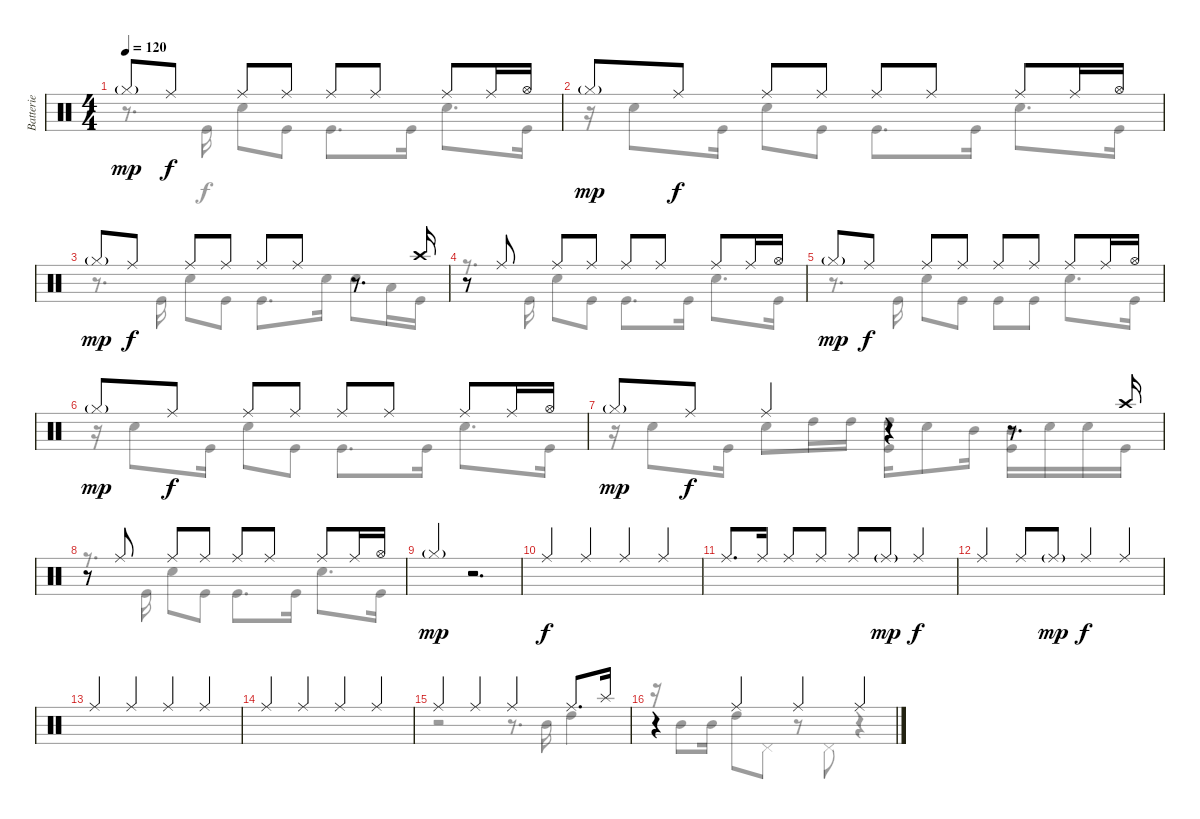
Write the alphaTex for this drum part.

\track ("Batterie" "Batterie") {instrument percussion}
\staff {score}
\articulation defaults
\voice
\ts (4 4)
\tempo 120
\clef neutral
\ks c "Hi-Hat (closed)"{g}.8{dy mp} "Ride (middle)".8{dy f} "Ride (middle)".8 "Ride (middle)".8 "Ride (middle)".8 "Ride (middle)".8 "Ride (middle)".8 "Ride (middle)".16 "Hi-Hat (open)".16
|
"Hi-Hat (closed)"{g}.8{dy mp} "Ride (middle)".8{dy f} "Ride (middle)".8 "Ride (middle)".8 "Ride (middle)".8 "Ride (middle)".8 "Ride (middle)".8 "Ride (middle)".16 "Hi-Hat (open)".16 |
"Hi-Hat (closed)"{g}.8{dy mp} "Ride (middle)".8{dy f} "Ride (middle)".8 "Ride (middle)".8 "Ride (middle)".8 "Ride (middle)".8 r.8{d} "Crash high (hit)".16 |
r.8 "Ride (middle)".8 "Ride (middle)".8 "Ride (middle)".8 "Ride (middle)".8 "Ride (middle)".8 "Ride (middle)".8 "Ride (middle)".16 "Hi-Hat (open)".16 |
"Hi-Hat (closed)"{g}.8{dy mp} "Ride (middle)".8{dy f} "Ride (middle)".8 "Ride (middle)".8 "Ride (middle)".8 "Ride (middle)".8 "Ride (middle)".8 "Ride (middle)".16 "Hi-Hat (open)".16 |
"Hi-Hat (closed)"{g}.8{dy mp} "Ride (middle)".8{dy f} "Ride (middle)".8 "Ride (middle)".8 "Ride (middle)".8 "Ride (middle)".8 "Ride (middle)".8 "Ride (middle)".16 "Hi-Hat (open)".16 |
"Hi-Hat (closed)"{g}.8{dy mp} "Ride (middle)".8{dy f} "Ride (middle)".4 r.4 r.8{d} "Crash high (hit)".16 |
r.8 "Ride (middle)".8 "Ride (middle)".8 "Ride (middle)".8 "Ride (middle)".8 "Ride (middle)".8 "Ride (middle)".8 "Ride (middle)".16 "Hi-Hat (open)".16 |
"Hi-Hat (closed)"{g}.4{dy mp beam Up} r.2{d} |
"Ride (middle)".4{dy f beam Up} "Ride (middle)".4{beam Up} "Ride (middle)".4{beam Up} "Ride (middle)".4{beam Up} |
"Ride (middle)".8{d beam Up} "Ride (middle)".16{beam Up} "Ride (middle)".8{beam Up} "Ride (middle)".8{beam Up} "Ride (middle)".8{beam Up} "Ride (middle)"{g}.8{dy mp beam Up} "Ride (middle)".4{dy f beam Up} |
"Ride (middle)".4{beam Up} "Ride (middle)".8{beam Up} "Ride (middle)"{g}.8{dy mp beam Up} "Ride (middle)".4{dy f beam Up} "Ride (middle)".4{beam Up} |
"Ride (middle)".4{beam Up} "Ride (middle)".4{beam Up} "Ride (middle)".4{beam Up} "Ride (middle)".4{beam Up} |
"Ride (middle)".4{beam Up} "Ride (middle)".4{beam Up} "Ride (middle)".4{beam Up} "Ride (middle)".4{beam Up} |
"Ride (middle)".4 "Ride (middle)".4 "Ride (middle)".4 "Ride (middle)".8{d} "Splash (hit)".16 |
r.4 "Ride (middle)".4 "Ride (middle)".4 "Ride (middle)".4
\voice
\clef neutral
\ottava regular
\simile none
\ks c
r.8{d dy f} "Kick (hit)".16 "Snare (hit) 2".8 "Kick (hit)".8 "Kick (hit)".8{d} "Kick (hit)".16 "Snare (hit) 2".8{d} "Kick (hit)".16 |
r.16 "Snare (hit) 2".8 "Kick (hit)".16 "Snare (hit) 2".8 "Kick (hit)".8 "Kick (hit)".8{d} "Kick (hit)".16 "Snare (hit) 2".8{d} "Kick (hit)".16 |
r.8{d} "Kick (hit)".16 "Snare (hit) 2".8 "Kick (hit)".8 "Kick (hit)".8{d} "Snare (hit) 2".16 "Snare (hit) 2".8 "Low Tom (hit)".16 "Kick (hit)".16 |
r.8{d} "Kick (hit)".16 "Snare (hit) 2".8 "Kick (hit)".8 "Kick (hit)".8{d} "Kick (hit)".16 "Snare (hit) 2".8{d} "Kick (hit)".16 |
r.8{d} "Kick (hit)".16 "Snare (hit) 2".8 "Kick (hit)".8 "Kick (hit)".8 "Kick (hit)".8 "Snare (hit) 2".8{d} "Kick (hit)".16 |
r.16 "Snare (hit) 2".8 "Kick (hit)".16 "Snare (hit) 2".8 "Kick (hit)".8 "Kick (hit)".8{d} "Kick (hit)".16 "Snare (hit) 2".8{d} "Kick (hit)".16 |
r.16 "Snare (hit) 2".8 "Kick (hit)".16 "Snare (hit) 2".8 "High Tom (hit)".16 "High Tom (hit)".16 ("High Tom (hit)" "Kick (hit)").16 "Snare (hit) 2".8 "Mid Tom (hit)".16 ("Mid Tom (hit)" "Kick (hit)").16 "Snare (hit) 2".16 "Snare (hit) 2".16 "Kick (hit)".16 |
r.8{d} "Kick (hit)".16 "Snare (hit) 2".8 "Kick (hit)".8 "Kick (hit)".8{d} "Kick (hit)".16 "Snare (hit) 2".8{d} "Kick (hit)".16 |
|
|
|
|
|
|
r.2 r.8{d} "Mid Tom (hit)".16 "High Tom (hit)".4 |
r.16 "Mid Tom (hit)".8 "Mid Tom (hit)".16 "High Tom (hit)".8 "Pedal Hi-Hat (hit)".8 r.8 "Pedal Hi-Hat (hit)".8 r.4
